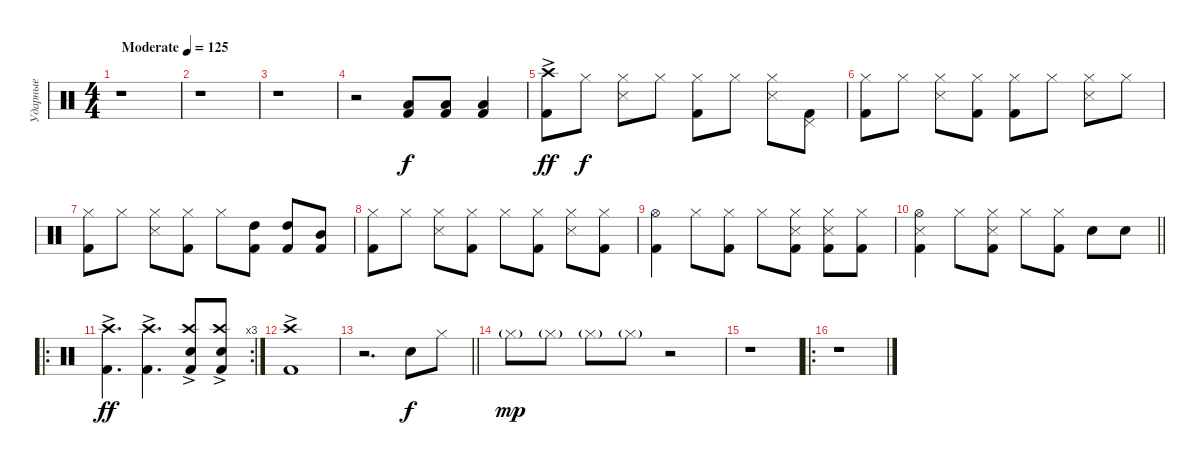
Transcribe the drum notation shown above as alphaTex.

\track ("Ударные" "Ударные") {instrument percussion}
\staff
\articulation defaults
\ts (4 4)
\tempo (125 "Moderate")
\clef neutral
\ks c
r.1{dy f} |
r.1 |
r.1 |
r.2 ("Kick (hit) 2" "Low Tom (hit)").8 ("Kick (hit) 2" "Low Tom (hit)").8 ("Kick (hit) 2" "Low Tom (hit)").4 |
("Kick (hit) 2" "Crash high (hit)"{ac}).8{dy ff} "Hi-Hat (closed)".8{dy f} ("Snare (side stick) 3" "Hi-Hat (closed)").8 "Hi-Hat (closed)".8 ("Kick (hit) 2" "Hi-Hat (closed)").8 "Hi-Hat (closed)".8 ("Snare (side stick) 3" "Hi-Hat (closed)").8 ("Kick (hit) 2" "Pedal Hi-Hat (hit)").8 |
("Kick (hit) 2" "Hi-Hat (closed)").8 "Hi-Hat (closed)".8 ("Snare (side stick) 3" "Hi-Hat (closed)").8 ("Kick (hit) 2" "Hi-Hat (closed)").8 ("Kick (hit) 2" "Hi-Hat (closed)").8 "Hi-Hat (closed)".8 ("Snare (side stick) 3" "Hi-Hat (closed)").8 "Hi-Hat (closed)".8 |
("Kick (hit) 2" "Hi-Hat (closed)").8 "Hi-Hat (closed)".8 ("Snare (side stick) 3" "Hi-Hat (closed)").8 ("Kick (hit) 2" "Hi-Hat (closed)").8 "Hi-Hat (closed)".8 ("Kick (hit) 2" "High Tom (hit)").8 ("Kick (hit) 2" "High Tom (hit)").8 ("Kick (hit) 2" "Mid Tom (hit)").8 |
("Kick (hit) 2" "Hi-Hat (closed)").8 "Hi-Hat (closed)".8 ("Snare (side stick) 3" "Hi-Hat (closed)").8 ("Kick (hit) 2" "Hi-Hat (closed)").8 "Hi-Hat (closed)".8 ("Kick (hit) 2" "Hi-Hat (closed)").8 ("Snare (side stick) 3" "Hi-Hat (closed)").8 ("Kick (hit) 2" "Hi-Hat (closed)").8 |
("Kick (hit) 2" "Hi-Hat (open)").4 "Hi-Hat (closed)".8 ("Kick (hit) 2" "Hi-Hat (closed)").8 "Hi-Hat (closed)".8 ("Kick (hit) 2" "Snare (side stick) 3" "Hi-Hat (closed)").8 ("Kick (hit) 2" "Snare (side stick) 3" "Hi-Hat (closed)").8 ("Kick (hit) 2" "Hi-Hat (closed)").8 |
\barLineRight lightlight
("Kick (hit) 2" "Snare (side stick) 3" "Hi-Hat (open)").4 "Hi-Hat (closed)".8 ("Kick (hit) 2" "Snare (side stick) 3" "Hi-Hat (closed)").8 "Hi-Hat (closed)".8 ("Kick (hit) 2" "Hi-Hat (closed)").8 "Snare (hit) 2".8 "Snare (hit) 2".8 |
\ro
\rc 3
("Kick (hit) 2" "Crash high (hit)"{ac}).4{d dy ff} ("Kick (hit) 2" "Crash high (hit)"{ac}).4{d} ("Kick (hit) 2" "Snare (hit) 2" "Crash high (hit)"{ac}).8 ("Kick (hit) 2" "Snare (hit) 2" "Crash high (hit)"{ac}).8 |
("Kick (hit) 2" "Crash high (hit)"{ac}).1 |
\barLineRight lightlight
r.2{d} "Snare (hit) 2".8{dy f} "Hi-Hat (closed)".8 |
"Hi-Hat (closed)"{g}.8{dy mp} "Hi-Hat (closed)"{g}.8 "Hi-Hat (closed)"{g}.8 "Hi-Hat (closed)"{g}.8 r.2 |
r.1 |
\ro
r.1
